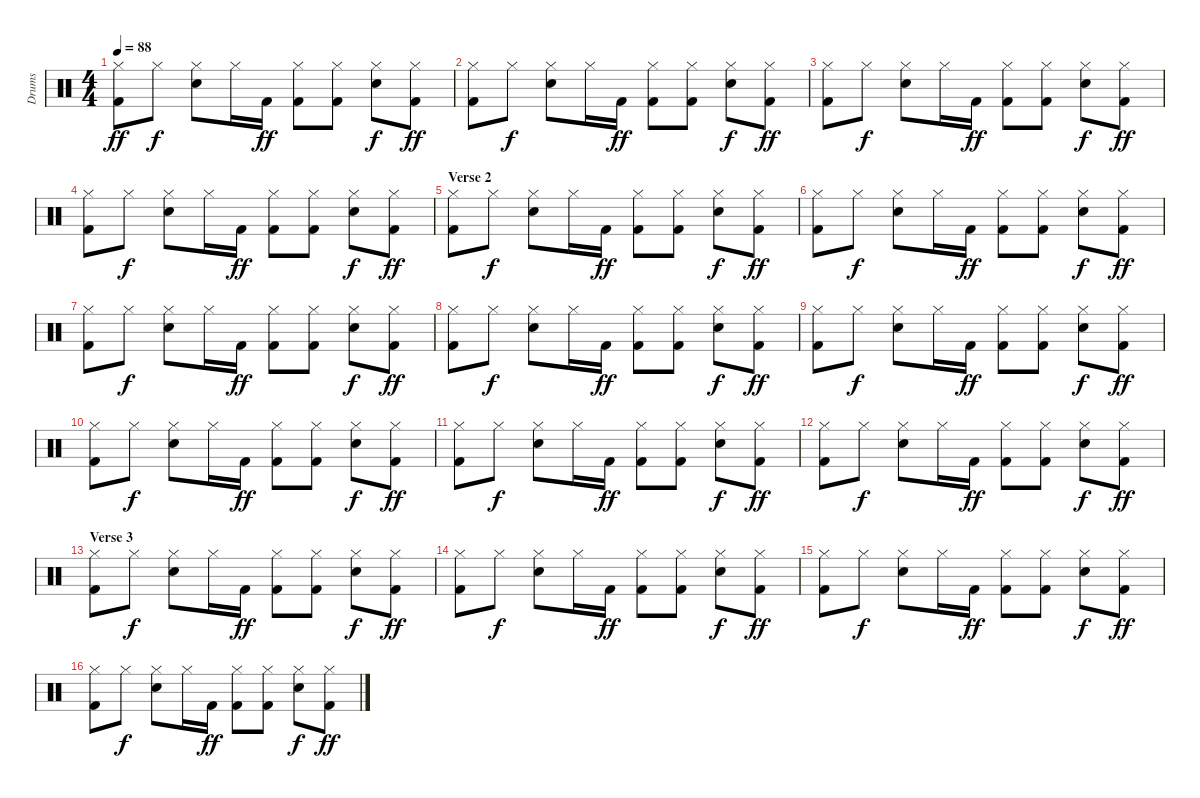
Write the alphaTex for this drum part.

\track ("Drums" "Drums") {instrument percussion}
\staff {score}
\articulation defaults
\ts (4 4)
\tempo 88
\clef neutral
\ks c
("Hi-Hat (closed)" "Kick (hit) 2").8{dy ff} "Hi-Hat (closed)".8{dy f} ("Hi-Hat (closed)" "Electric Snare (hit)").8 "Hi-Hat (closed)".16 "Kick (hit) 2".16{dy ff} ("Hi-Hat (closed)" "Kick (hit) 2").8 ("Hi-Hat (closed)" "Kick (hit) 2").8 ("Hi-Hat (closed)" "Electric Snare (hit)").8{dy f} ("Hi-Hat (closed)" "Kick (hit) 2").8{dy ff} |
("Hi-Hat (closed)" "Kick (hit) 2").8 "Hi-Hat (closed)".8{dy f} ("Hi-Hat (closed)" "Electric Snare (hit)").8 "Hi-Hat (closed)".16 "Kick (hit) 2".16{dy ff} ("Hi-Hat (closed)" "Kick (hit) 2").8 ("Hi-Hat (closed)" "Kick (hit) 2").8 ("Hi-Hat (closed)" "Electric Snare (hit)").8{dy f} ("Hi-Hat (closed)" "Kick (hit) 2").8{dy ff} |
("Hi-Hat (closed)" "Kick (hit) 2").8 "Hi-Hat (closed)".8{dy f} ("Hi-Hat (closed)" "Electric Snare (hit)").8 "Hi-Hat (closed)".16 "Kick (hit) 2".16{dy ff} ("Hi-Hat (closed)" "Kick (hit) 2").8 ("Hi-Hat (closed)" "Kick (hit) 2").8 ("Hi-Hat (closed)" "Electric Snare (hit)").8{dy f} ("Hi-Hat (closed)" "Kick (hit) 2").8{dy ff} |
("Hi-Hat (closed)" "Kick (hit) 2").8 "Hi-Hat (closed)".8{dy f} ("Hi-Hat (closed)" "Electric Snare (hit)").8 "Hi-Hat (closed)".16 "Kick (hit) 2".16{dy ff} ("Hi-Hat (closed)" "Kick (hit) 2").8 ("Hi-Hat (closed)" "Kick (hit) 2").8 ("Hi-Hat (closed)" "Electric Snare (hit)").8{dy f} ("Hi-Hat (closed)" "Kick (hit) 2").8{dy ff} |
\section ("" "Verse 2")
("Hi-Hat (closed)" "Kick (hit) 2").8 "Hi-Hat (closed)".8{dy f} ("Hi-Hat (closed)" "Electric Snare (hit)").8 "Hi-Hat (closed)".16 "Kick (hit) 2".16{dy ff} ("Hi-Hat (closed)" "Kick (hit) 2").8 ("Hi-Hat (closed)" "Kick (hit) 2").8 ("Hi-Hat (closed)" "Electric Snare (hit)").8{dy f} ("Hi-Hat (closed)" "Kick (hit) 2").8{dy ff} |
("Hi-Hat (closed)" "Kick (hit) 2").8 "Hi-Hat (closed)".8{dy f} ("Hi-Hat (closed)" "Electric Snare (hit)").8 "Hi-Hat (closed)".16 "Kick (hit) 2".16{dy ff} ("Hi-Hat (closed)" "Kick (hit) 2").8 ("Hi-Hat (closed)" "Kick (hit) 2").8 ("Hi-Hat (closed)" "Electric Snare (hit)").8{dy f} ("Hi-Hat (closed)" "Kick (hit) 2").8{dy ff} |
("Hi-Hat (closed)" "Kick (hit) 2").8 "Hi-Hat (closed)".8{dy f} ("Hi-Hat (closed)" "Electric Snare (hit)").8 "Hi-Hat (closed)".16 "Kick (hit) 2".16{dy ff} ("Hi-Hat (closed)" "Kick (hit) 2").8 ("Hi-Hat (closed)" "Kick (hit) 2").8 ("Hi-Hat (closed)" "Electric Snare (hit)").8{dy f} ("Hi-Hat (closed)" "Kick (hit) 2").8{dy ff} |
("Hi-Hat (closed)" "Kick (hit) 2").8 "Hi-Hat (closed)".8{dy f} ("Hi-Hat (closed)" "Electric Snare (hit)").8 "Hi-Hat (closed)".16 "Kick (hit) 2".16{dy ff} ("Hi-Hat (closed)" "Kick (hit) 2").8 ("Hi-Hat (closed)" "Kick (hit) 2").8 ("Hi-Hat (closed)" "Electric Snare (hit)").8{dy f} ("Hi-Hat (closed)" "Kick (hit) 2").8{dy ff} |
("Hi-Hat (closed)" "Kick (hit) 2").8 "Hi-Hat (closed)".8{dy f} ("Hi-Hat (closed)" "Electric Snare (hit)").8 "Hi-Hat (closed)".16 "Kick (hit) 2".16{dy ff} ("Hi-Hat (closed)" "Kick (hit) 2").8 ("Hi-Hat (closed)" "Kick (hit) 2").8 ("Hi-Hat (closed)" "Electric Snare (hit)").8{dy f} ("Hi-Hat (closed)" "Kick (hit) 2").8{dy ff} |
("Hi-Hat (closed)" "Kick (hit) 2").8 "Hi-Hat (closed)".8{dy f} ("Hi-Hat (closed)" "Electric Snare (hit)").8 "Hi-Hat (closed)".16 "Kick (hit) 2".16{dy ff} ("Hi-Hat (closed)" "Kick (hit) 2").8 ("Hi-Hat (closed)" "Kick (hit) 2").8 ("Hi-Hat (closed)" "Electric Snare (hit)").8{dy f} ("Hi-Hat (closed)" "Kick (hit) 2").8{dy ff} |
("Hi-Hat (closed)" "Kick (hit) 2").8 "Hi-Hat (closed)".8{dy f} ("Hi-Hat (closed)" "Electric Snare (hit)").8 "Hi-Hat (closed)".16 "Kick (hit) 2".16{dy ff} ("Hi-Hat (closed)" "Kick (hit) 2").8 ("Hi-Hat (closed)" "Kick (hit) 2").8 ("Hi-Hat (closed)" "Electric Snare (hit)").8{dy f} ("Hi-Hat (closed)" "Kick (hit) 2").8{dy ff} |
("Hi-Hat (closed)" "Kick (hit) 2").8 "Hi-Hat (closed)".8{dy f} ("Hi-Hat (closed)" "Electric Snare (hit)").8 "Hi-Hat (closed)".16 "Kick (hit) 2".16{dy ff} ("Hi-Hat (closed)" "Kick (hit) 2").8 ("Hi-Hat (closed)" "Kick (hit) 2").8 ("Hi-Hat (closed)" "Electric Snare (hit)").8{dy f} ("Hi-Hat (closed)" "Kick (hit) 2").8{dy ff} |
\section ("" "Verse 3")
("Hi-Hat (closed)" "Kick (hit) 2").8 "Hi-Hat (closed)".8{dy f} ("Hi-Hat (closed)" "Electric Snare (hit)").8 "Hi-Hat (closed)".16 "Kick (hit) 2".16{dy ff} ("Hi-Hat (closed)" "Kick (hit) 2").8 ("Hi-Hat (closed)" "Kick (hit) 2").8 ("Hi-Hat (closed)" "Electric Snare (hit)").8{dy f} ("Hi-Hat (closed)" "Kick (hit) 2").8{dy ff} |
("Hi-Hat (closed)" "Kick (hit) 2").8 "Hi-Hat (closed)".8{dy f} ("Hi-Hat (closed)" "Electric Snare (hit)").8 "Hi-Hat (closed)".16 "Kick (hit) 2".16{dy ff} ("Hi-Hat (closed)" "Kick (hit) 2").8 ("Hi-Hat (closed)" "Kick (hit) 2").8 ("Hi-Hat (closed)" "Electric Snare (hit)").8{dy f} ("Hi-Hat (closed)" "Kick (hit) 2").8{dy ff} |
("Hi-Hat (closed)" "Kick (hit) 2").8 "Hi-Hat (closed)".8{dy f} ("Hi-Hat (closed)" "Electric Snare (hit)").8 "Hi-Hat (closed)".16 "Kick (hit) 2".16{dy ff} ("Hi-Hat (closed)" "Kick (hit) 2").8 ("Hi-Hat (closed)" "Kick (hit) 2").8 ("Hi-Hat (closed)" "Electric Snare (hit)").8{dy f} ("Hi-Hat (closed)" "Kick (hit) 2").8{dy ff} |
("Hi-Hat (closed)" "Kick (hit) 2").8 "Hi-Hat (closed)".8{dy f} ("Hi-Hat (closed)" "Electric Snare (hit)").8 "Hi-Hat (closed)".16 "Kick (hit) 2".16{dy ff} ("Hi-Hat (closed)" "Kick (hit) 2").8 ("Hi-Hat (closed)" "Kick (hit) 2").8 ("Hi-Hat (closed)" "Electric Snare (hit)").8{dy f} ("Hi-Hat (closed)" "Kick (hit) 2").8{dy ff}
